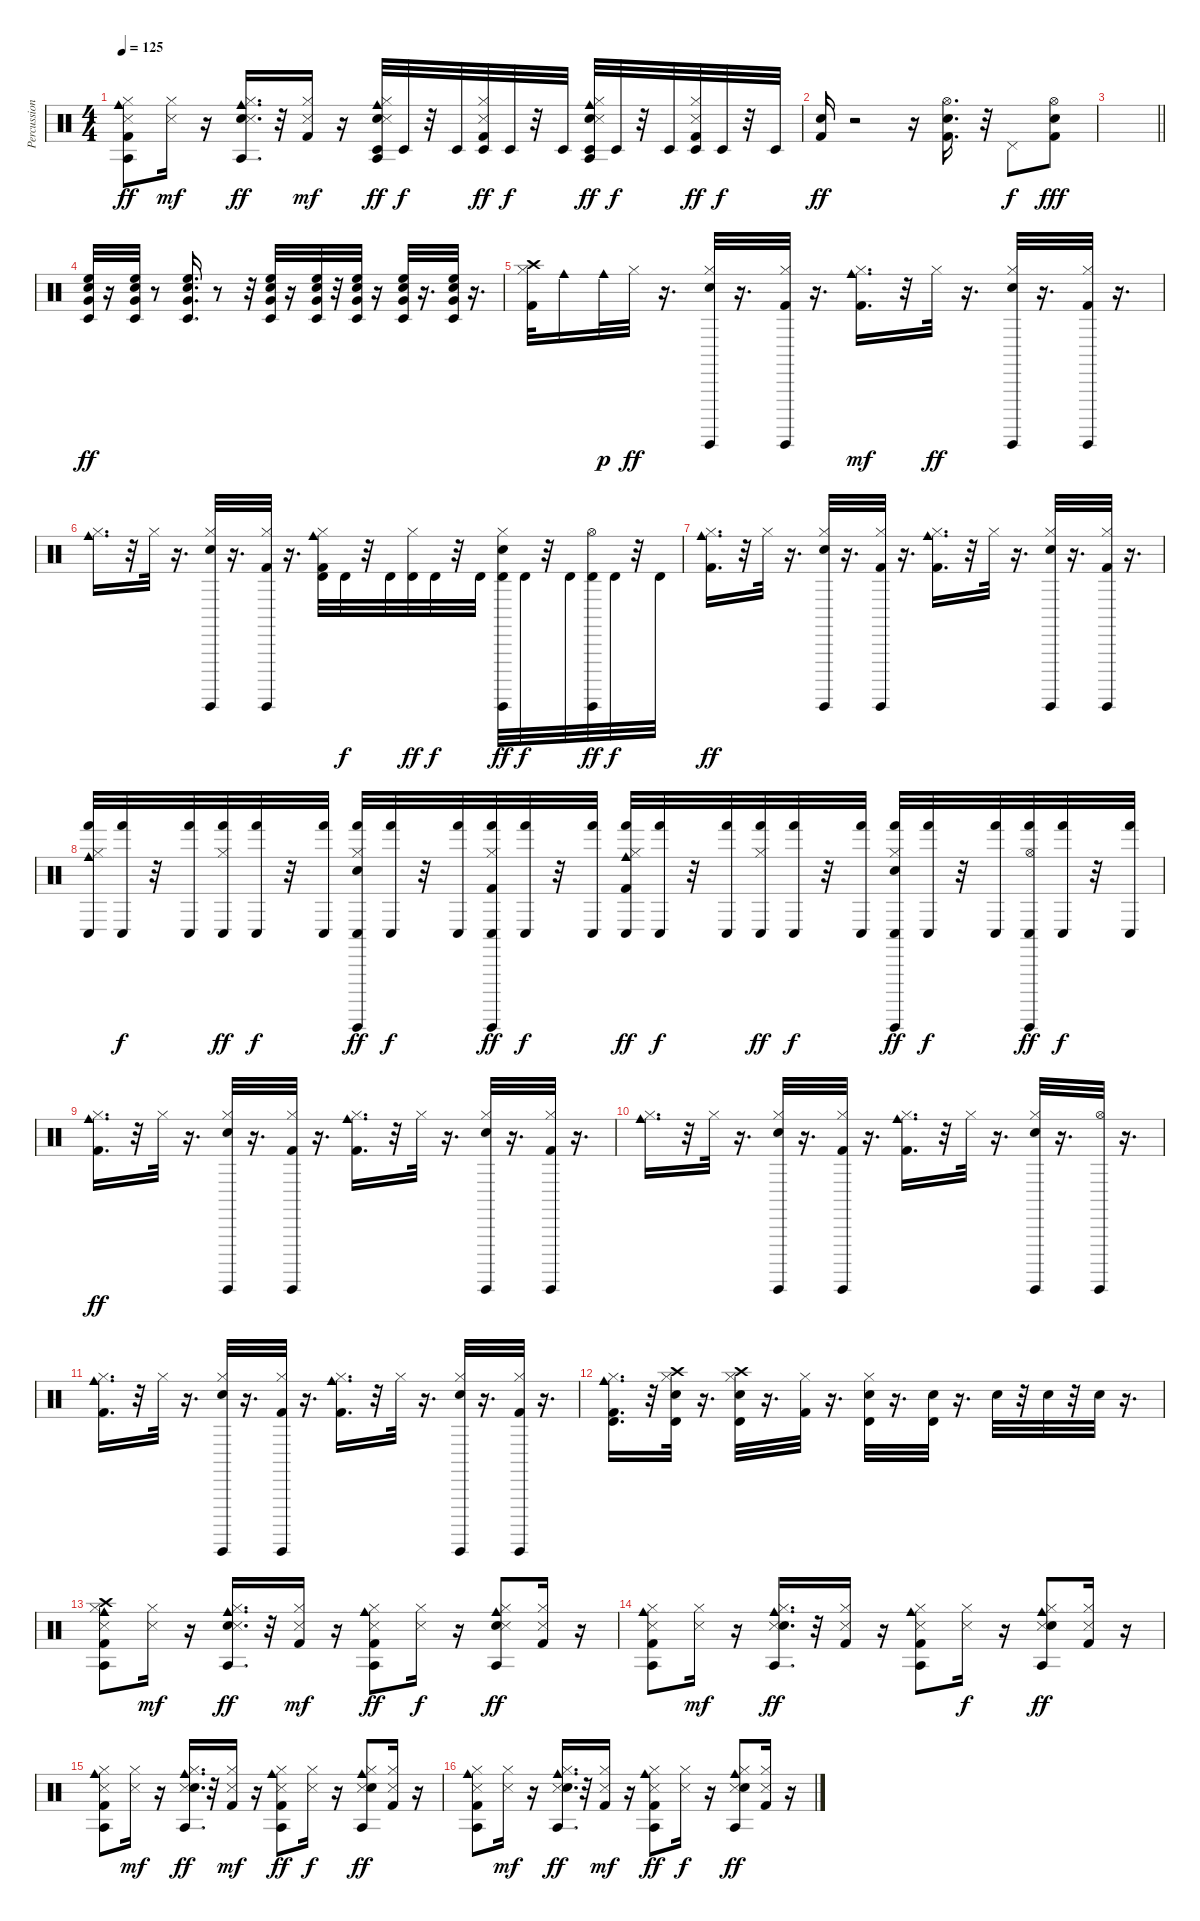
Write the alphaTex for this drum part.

\track ("Percussion" "Percussion") {instrument percussion}
\staff {score}
\articulation defaults
\ts (4 4)
\tempo 125
\clef neutral
\ks c
("Kick (hit) 2" "Agogo tow (hit)" "Cowbell medium (hit)" "Snare (side stick) 3" "Hi-Hat (closed)").8{dy ff} ("Snare (side stick) 3" "Hi-Hat (closed)").16{dy mf} r.16 ("Snare (hit) 2" "Agogo tow (hit)" "Cowbell medium (hit)" "Snare (side stick) 3" "Hi-Hat (closed)").16{d dy ff} r.32 ("Kick (hit) 2" "Snare (side stick) 3" "Hi-Hat (closed)").16{dy mf} r.16 ("Snare (hit) 2" "Timbale low (hit)" "Agogo tow (hit)" "Cowbell medium (hit)" "Snare (side stick) 3" "Hi-Hat (closed)").32{dy ff} "Timbale low (hit)".32{dy f} r.32 "Timbale low (hit)".32 ("Timbale low (hit)" "Snare (side stick) 3" "Hi-Hat (closed)" "Kick (hit) 2").32{dy ff} "Timbale low (hit)".32{dy f} r.32 "Timbale low (hit)".32 ("Snare (hit) 2" "Agogo tow (hit)" "Cowbell medium (hit)" "Snare (side stick) 3" "Hi-Hat (closed)" "Timbale low (hit)").32{dy ff} "Timbale low (hit)".32{dy f} r.32 "Timbale low (hit)".32 ("Timbale low (hit)" "Kick (hit) 2" "Snare (side stick) 3" "Hi-Hat (closed)").32{dy ff} "Timbale low (hit)".32{dy f} r.32 "Timbale low (hit)".32 |
("Kick (hit) 2" "Snare (hit) 2").16{dy ff} r.2 r.16 ("Snare (hit) 2" "Kick (hit) 2" "Hi-Hat (open)").16{d} r.32 "Pedal Hi-Hat (hit)".8{dy f} ("Kick (hit) 2" "Snare (hit) 2" "Hi-Hat (open)").8{dy fff} |
\barLineRight lightlight
|
("Timbale low (hit)" "Electric Snare (hit)" "High Floor Tom (hit)" "Very Low Tom (hit)").32{dy ff} r.16 ("Very Low Tom (hit)" "Timbale low (hit)" "Electric Snare (hit)" "High Floor Tom (hit)").32 r.8 ("Very Low Tom (hit)" "Timbale low (hit)" "High Floor Tom (hit)" "Electric Snare (hit)").16{d} r.8 r.32 ("Very Low Tom (hit)" "Electric Snare (hit)" "Timbale low (hit)" "High Floor Tom (hit)").32 r.16 ("Very Low Tom (hit)" "Timbale low (hit)" "Electric Snare (hit)" "High Floor Tom (hit)").32 r.32 ("Very Low Tom (hit)" "High Floor Tom (hit)" "Timbale low (hit)" "Electric Snare (hit)").32 r.16 ("Very Low Tom (hit)" "High Floor Tom (hit)" "Electric Snare (hit)" "Timbale low (hit)").32 r.16{d} ("Very Low Tom (hit)" "Electric Snare (hit)" "High Floor Tom (hit)" "Timbale low (hit)").32 r.16{d} |
("Kick (hit) 2" "Hi-Hat (closed)" "Crash high (hit)").32 "Cowbell medium (hit)".16 "Cowbell medium (hit)".32{dy p} "Hi-Hat (closed)".32{dy ff} r.16{d} ("Guiro (hit)" "Snare (hit) 2" "Hi-Hat (closed)").32 r.16{d} ("Hi-Hat (closed)" "Kick (hit) 2" "Guiro (hit)").32 r.16{d} ("Kick (hit) 2" "Hi-Hat (closed)" "Cowbell medium (hit)").16{d dy mf} r.32 "Hi-Hat (closed)".32{dy ff} r.16{d} ("Hi-Hat (closed)" "Guiro (hit)" "Snare (hit) 2").32 r.16{d} ("Kick (hit) 2" "Guiro (hit)" "Hi-Hat (closed)").32 r.16{d} |
("Cowbell medium (hit)" "Hi-Hat (closed)").16{d} r.32 "Hi-Hat (closed)".32 r.16{d} ("Guiro (hit)" "Snare (hit) 2" "Hi-Hat (closed)").32 r.16{d} ("Hi-Hat (closed)" "Kick (hit) 2" "Guiro (hit)").32 r.16{d} ("Kick (hit) 2" "Hi-Hat (closed)" "Timbale high (hit)" "Cowbell medium (hit)").32 "Timbale high (hit)".32{dy f} r.32 "Timbale high (hit)".32 ("Timbale high (hit)" "Hi-Hat (closed)").32{dy ff} "Timbale high (hit)".32{dy f} r.32 "Timbale high (hit)".32 ("Timbale high (hit)" "Guiro (hit)" "Snare (hit) 2" "Hi-Hat (closed)").32{dy ff} "Timbale high (hit)".32{dy f} r.32 "Timbale high (hit)".32 ("Timbale high (hit)" "Hi-Hat (open)" "Guiro (hit)").32{dy ff} "Timbale high (hit)".32{dy f} r.32 "Timbale high (hit)".32 |
("Kick (hit) 2" "Hi-Hat (closed)" "Cowbell medium (hit)").16{d dy ff} r.32 "Hi-Hat (closed)".32 r.16{d} ("Guiro (hit)" "Snare (hit) 2" "Hi-Hat (closed)").32 r.16{d} ("Hi-Hat (closed)" "Kick (hit) 2" "Guiro (hit)").32 r.16{d} ("Kick (hit) 2" "Hi-Hat (closed)" "Cowbell medium (hit)").16{d} r.32 "Hi-Hat (closed)".32 r.16{d} ("Guiro (hit)" "Snare (hit) 2" "Hi-Hat (closed)").32 r.16{d} ("Guiro (hit)" "Hi-Hat (closed)" "Kick (hit) 2").32 r.16{d} |
("Conga low (hit)" "Hi-Hat (closed)" "Hand (hit)" "Cowbell medium (hit)").32 ("Conga low (hit)" "Hand (hit)").32{dy f} r.32 ("Conga low (hit)" "Hand (hit)").32 ("Conga low (hit)" "Hi-Hat (closed)" "Hand (hit)").32{dy ff} ("Conga low (hit)" "Hand (hit)").32{dy f} r.32 ("Conga low (hit)" "Hand (hit)").32 ("Conga low (hit)" "Hand (hit)" "Guiro (hit)" "Snare (hit) 2" "Hi-Hat (closed)").32{dy ff} ("Conga low (hit)" "Hand (hit)").32{dy f} r.32 ("Conga low (hit)" "Hand (hit)").32 ("Conga low (hit)" "Hand (hit)" "Hi-Hat (closed)" "Kick (hit) 2" "Guiro (hit)").32{dy ff} ("Conga low (hit)" "Hand (hit)").32{dy f} r.32 ("Conga low (hit)" "Hand (hit)").32 ("Cowbell medium (hit)" "Hand (hit)" "Kick (hit) 2" "Hi-Hat (closed)" "Conga low (hit)").32{dy ff} ("Conga low (hit)" "Hand (hit)").32{dy f} r.32 ("Conga low (hit)" "Hand (hit)").32 ("Conga low (hit)" "Hand (hit)" "Hi-Hat (closed)").32{dy ff} ("Hand (hit)" "Conga low (hit)").32{dy f} r.32 ("Conga low (hit)" "Hand (hit)").32 ("Hand (hit)" "Guiro (hit)" "Snare (hit) 2" "Hi-Hat (closed)" "Conga low (hit)").32{dy ff} ("Conga low (hit)" "Hand (hit)").32{dy f} r.32 ("Conga low (hit)" "Hand (hit)").32 ("Conga low (hit)" "Hand (hit)" "Hi-Hat (open)" "Guiro (hit)").32{dy ff} ("Conga low (hit)" "Hand (hit)").32{dy f} r.32 ("Conga low (hit)" "Hand (hit)").32 |
("Kick (hit) 2" "Hi-Hat (closed)" "Cowbell medium (hit)").16{d dy ff} r.32 "Hi-Hat (closed)".32 r.16{d} ("Guiro (hit)" "Snare (hit) 2" "Hi-Hat (closed)").32 r.16{d} ("Hi-Hat (closed)" "Kick (hit) 2" "Guiro (hit)").32 r.16{d} ("Cowbell medium (hit)" "Kick (hit) 2" "Hi-Hat (closed)").16{d} r.32 "Hi-Hat (closed)".32 r.16{d} ("Guiro (hit)" "Snare (hit) 2" "Hi-Hat (closed)").32 r.16{d} ("Guiro (hit)" "Hi-Hat (closed)" "Kick (hit) 2").32 r.16{d} |
("Cowbell medium (hit)" "Hi-Hat (closed)").16{d} r.32 "Hi-Hat (closed)".32 r.16{d} ("Guiro (hit)" "Snare (hit) 2" "Hi-Hat (closed)").32 r.16{d} ("Hi-Hat (closed)" "Kick (hit) 2" "Guiro (hit)").32 r.16{d} ("Kick (hit) 2" "Hi-Hat (closed)" "Cowbell medium (hit)").16{d} r.32 "Hi-Hat (closed)".32 r.16{d} ("Guiro (hit)" "Snare (hit) 2" "Hi-Hat (closed)").32 r.16{d} ("Hi-Hat (open)" "Guiro (hit)").32 r.16{d} |
("Kick (hit) 2" "Hi-Hat (closed)" "Cowbell medium (hit)").16{d} r.32 "Hi-Hat (closed)".32 r.16{d} ("Guiro (hit)" "Snare (hit) 2" "Hi-Hat (closed)").32 r.16{d} ("Hi-Hat (closed)" "Kick (hit) 2" "Guiro (hit)").32 r.16{d} ("Kick (hit) 2" "Hi-Hat (closed)" "Cowbell medium (hit)").16{d} r.32 "Hi-Hat (closed)".32 r.16{d} ("Guiro (hit)" "Snare (hit) 2" "Hi-Hat (closed)").32 r.16{d} ("Guiro (hit)" "Hi-Hat (closed)" "Kick (hit) 2").32 r.16{d} |
("Hi-Hat (closed)" "Kick (hit) 2" "Timbale high (hit)" "Cowbell medium (hit)").16{d} r.32 ("Crash high (hit)" "Hi-Hat (closed)" "Electric Snare (hit)" "Timbale high (hit)").32 r.16{d} ("Crash high (hit)" "Hi-Hat (closed)" "Electric Snare (hit)" "Timbale high (hit)").32 r.16{d} ("Hi-Hat (closed)" "Kick (hit) 2").32 r.16{d} ("Hi-Hat (closed)" "Timbale high (hit)" "Electric Snare (hit)").32 r.16{d} ("Electric Snare (hit)" "Timbale high (hit)").32 r.16{d} "Electric Snare (hit)".32 r.32 "Electric Snare (hit)".32 r.32 "Electric Snare (hit)".32 r.16{d} |
("Kick (hit) 2" "Hi-Hat (closed)" "Agogo tow (hit)" "Crash high (hit)" "Cowbell medium (hit)" "Snare (side stick) 3").8 ("Hi-Hat (closed)" "Snare (side stick) 3").16{dy mf} r.16 ("Snare (hit) 2" "Hi-Hat (closed)" "Agogo tow (hit)" "Cowbell medium (hit)" "Snare (side stick) 3").16{d dy ff} r.32 ("Kick (hit) 2" "Hi-Hat (closed)" "Snare (side stick) 3").16{dy mf} r.16 ("Kick (hit) 2" "Hi-Hat (closed)" "Agogo tow (hit)" "Cowbell medium (hit)" "Snare (side stick) 3").8{dy ff} ("Hi-Hat (closed)" "Snare (side stick) 3").16{dy f} r.16 ("Snare (hit) 2" "Hi-Hat (closed)" "Agogo tow (hit)" "Cowbell medium (hit)" "Snare (side stick) 3").8{dy ff} ("Kick (hit) 2" "Hi-Hat (closed)" "Snare (side stick) 3").16 r.16 |
("Cowbell medium (hit)" "Snare (side stick) 3" "Hi-Hat (closed)" "Agogo tow (hit)" "Kick (hit) 2").8 ("Snare (side stick) 3" "Hi-Hat (closed)").16{dy mf} r.16 ("Cowbell medium (hit)" "Snare (side stick) 3" "Hi-Hat (closed)" "Agogo tow (hit)" "Snare (hit) 2").16{d dy ff} r.32 ("Snare (side stick) 3" "Hi-Hat (closed)" "Kick (hit) 2").16 r.16 ("Cowbell medium (hit)" "Snare (side stick) 3" "Hi-Hat (closed)" "Agogo tow (hit)" "Kick (hit) 2").8 ("Snare (side stick) 3" "Hi-Hat (closed)").16{dy f} r.16 ("Cowbell medium (hit)" "Snare (side stick) 3" "Hi-Hat (closed)" "Agogo tow (hit)" "Snare (hit) 2").8{dy ff} ("Snare (side stick) 3" "Hi-Hat (closed)" "Kick (hit) 2").16 r.16 |
("Snare (side stick) 3" "Agogo tow (hit)" "Kick (hit) 2" "Cowbell medium (hit)" "Hi-Hat (closed)").8 ("Snare (side stick) 3" "Hi-Hat (closed)").16{dy mf} r.16 ("Snare (side stick) 3" "Agogo tow (hit)" "Snare (hit) 2" "Cowbell medium (hit)" "Hi-Hat (closed)").16{d dy ff} r.32 ("Snare (side stick) 3" "Kick (hit) 2" "Hi-Hat (closed)").16{dy mf} r.16 ("Snare (side stick) 3" "Agogo tow (hit)" "Kick (hit) 2" "Cowbell medium (hit)" "Hi-Hat (closed)").8{dy ff} ("Snare (side stick) 3" "Hi-Hat (closed)").16{dy f} r.16 ("Snare (side stick) 3" "Agogo tow (hit)" "Snare (hit) 2" "Cowbell medium (hit)" "Hi-Hat (closed)").8{dy ff} ("Snare (side stick) 3" "Kick (hit) 2" "Hi-Hat (closed)").16 r.16 |
("Cowbell medium (hit)" "Agogo tow (hit)" "Snare (side stick) 3" "Kick (hit) 2" "Hi-Hat (closed)").8 ("Snare (side stick) 3" "Hi-Hat (closed)").16{dy mf} r.16 ("Cowbell medium (hit)" "Agogo tow (hit)" "Snare (side stick) 3" "Snare (hit) 2" "Hi-Hat (closed)").16{d dy ff} r.32 ("Snare (side stick) 3" "Kick (hit) 2" "Hi-Hat (closed)").16{dy mf} r.16 ("Cowbell medium (hit)" "Agogo tow (hit)" "Snare (side stick) 3" "Kick (hit) 2" "Hi-Hat (closed)").8{dy ff} ("Snare (side stick) 3" "Hi-Hat (closed)").16{dy f} r.16 ("Cowbell medium (hit)" "Agogo tow (hit)" "Snare (side stick) 3" "Snare (hit) 2" "Hi-Hat (closed)").8{dy ff} ("Snare (side stick) 3" "Kick (hit) 2" "Hi-Hat (closed)").16 r.16
